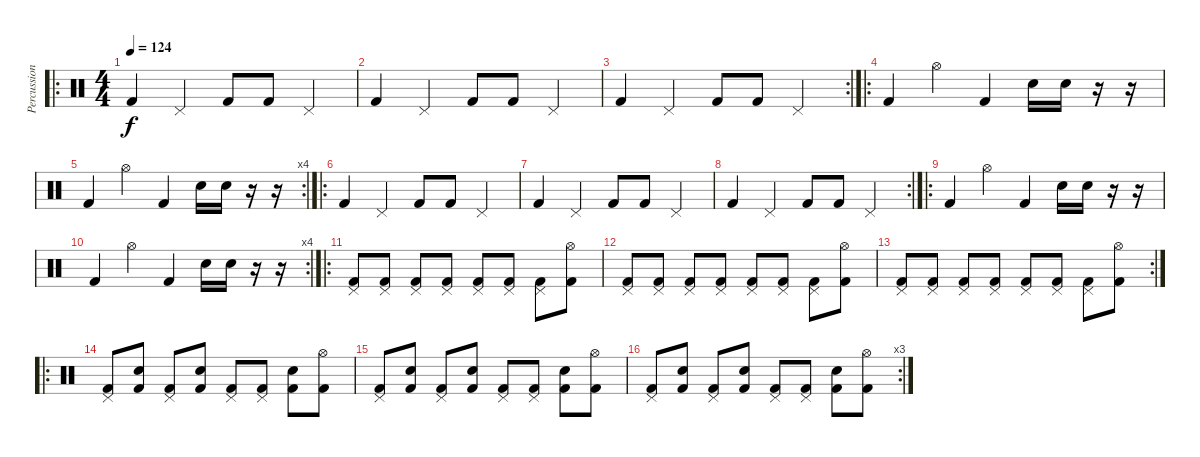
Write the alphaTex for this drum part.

\track ("Percussion" "Percussion") {instrument percussion}
\staff {score}
\articulation defaults
\ro
\ts (4 4)
\tempo 124
\clef neutral
\ks c "Kick (hit) 2".4{dy f} "Pedal Hi-Hat (hit)".4 "Kick (hit) 2".8 "Kick (hit) 2".8 "Pedal Hi-Hat (hit)".4
|
"Kick (hit) 2".4 "Pedal Hi-Hat (hit)".4 "Kick (hit) 2".8 "Kick (hit) 2".8 "Pedal Hi-Hat (hit)".4 |
\rc 2 "Kick (hit) 2".4 "Pedal Hi-Hat (hit)".4 "Kick (hit) 2".8 "Kick (hit) 2".8 "Pedal Hi-Hat (hit)".4
|
\ro "Kick (hit) 2".4 "Hi-Hat (open)".4 "Kick (hit) 2".4 "Electric Snare (hit)".16 "Electric Snare (hit)".16
r.16 r.16 |
\rc 4 "Kick (hit) 2".4 "Hi-Hat (open)".4 "Kick (hit) 2".4 "Electric Snare (hit)".16 "Electric Snare (hit)".16
r.16 r.16 |
\ro "Kick (hit) 2".4 "Pedal Hi-Hat (hit)".4 "Kick (hit) 2".8 "Kick (hit) 2".8 "Pedal Hi-Hat (hit)".4
|
"Kick (hit) 2".4 "Pedal Hi-Hat (hit)".4 "Kick (hit) 2".8 "Kick (hit) 2".8 "Pedal Hi-Hat (hit)".4 |
\rc 2 "Kick (hit) 2".4 "Pedal Hi-Hat (hit)".4 "Kick (hit) 2".8 "Kick (hit) 2".8 "Pedal Hi-Hat (hit)".4
|
\ro "Kick (hit) 2".4 "Hi-Hat (open)".4 "Kick (hit) 2".4 "Electric Snare (hit)".16 "Electric Snare (hit)".16
r.16 r.16 |
\rc 4 "Kick (hit) 2".4 "Hi-Hat (open)".4 "Kick (hit) 2".4 "Electric Snare (hit)".16 "Electric Snare (hit)".16
r.16 r.16 |
\ro
("Kick (hit) 2" "Pedal Hi-Hat (hit)").8 ("Kick (hit) 2" "Pedal Hi-Hat (hit)").8 ("Kick (hit) 2" "Pedal Hi-Hat (hit)").8 ("Kick (hit) 2" "Pedal Hi-Hat (hit)").8 ("Kick (hit) 2" "Pedal Hi-Hat (hit)").8 ("Kick (hit) 2" "Pedal Hi-Hat (hit)").8 ("Kick (hit) 2" "Pedal Hi-Hat (hit)").8 ("Kick (hit) 2" "Hi-Hat (open)").8 |
("Kick (hit) 2" "Pedal Hi-Hat (hit)").8 ("Kick (hit) 2" "Pedal Hi-Hat (hit)").8 ("Kick (hit) 2" "Pedal Hi-Hat (hit)").8 ("Kick (hit) 2" "Pedal Hi-Hat (hit)").8 ("Kick (hit) 2" "Pedal Hi-Hat (hit)").8 ("Kick (hit) 2" "Pedal Hi-Hat (hit)").8 ("Kick (hit) 2" "Pedal Hi-Hat (hit)").8 ("Kick (hit) 2" "Hi-Hat (open)").8 |
\rc 2
("Kick (hit) 2" "Pedal Hi-Hat (hit)").8 ("Kick (hit) 2" "Pedal Hi-Hat (hit)").8 ("Kick (hit) 2" "Pedal Hi-Hat (hit)").8 ("Kick (hit) 2" "Pedal Hi-Hat (hit)").8 ("Kick (hit) 2" "Pedal Hi-Hat (hit)").8 ("Kick (hit) 2" "Pedal Hi-Hat (hit)").8 ("Kick (hit) 2" "Pedal Hi-Hat (hit)").8 ("Kick (hit) 2" "Hi-Hat (open)").8 |
\ro
("Kick (hit) 2" "Pedal Hi-Hat (hit)").8 ("Kick (hit) 2" "Electric Snare (hit)").8 ("Kick (hit) 2" "Pedal Hi-Hat (hit)").8 ("Kick (hit) 2" "Electric Snare (hit)").8 ("Kick (hit) 2" "Pedal Hi-Hat (hit)").8 ("Kick (hit) 2" "Pedal Hi-Hat (hit)").8 ("Kick (hit) 2" "Electric Snare (hit)").8 ("Kick (hit) 2" "Hi-Hat (open)").8 |
("Kick (hit) 2" "Pedal Hi-Hat (hit)").8 ("Kick (hit) 2" "Electric Snare (hit)").8 ("Kick (hit) 2" "Pedal Hi-Hat (hit)").8 ("Kick (hit) 2" "Electric Snare (hit)").8 ("Kick (hit) 2" "Pedal Hi-Hat (hit)").8 ("Kick (hit) 2" "Pedal Hi-Hat (hit)").8 ("Kick (hit) 2" "Electric Snare (hit)").8 ("Kick (hit) 2" "Hi-Hat (open)").8 |
\rc 3
("Kick (hit) 2" "Pedal Hi-Hat (hit)").8 ("Kick (hit) 2" "Electric Snare (hit)").8 ("Kick (hit) 2" "Pedal Hi-Hat (hit)").8 ("Kick (hit) 2" "Electric Snare (hit)").8 ("Kick (hit) 2" "Pedal Hi-Hat (hit)").8 ("Kick (hit) 2" "Pedal Hi-Hat (hit)").8 ("Kick (hit) 2" "Electric Snare (hit)").8 ("Kick (hit) 2" "Hi-Hat (open)").8
